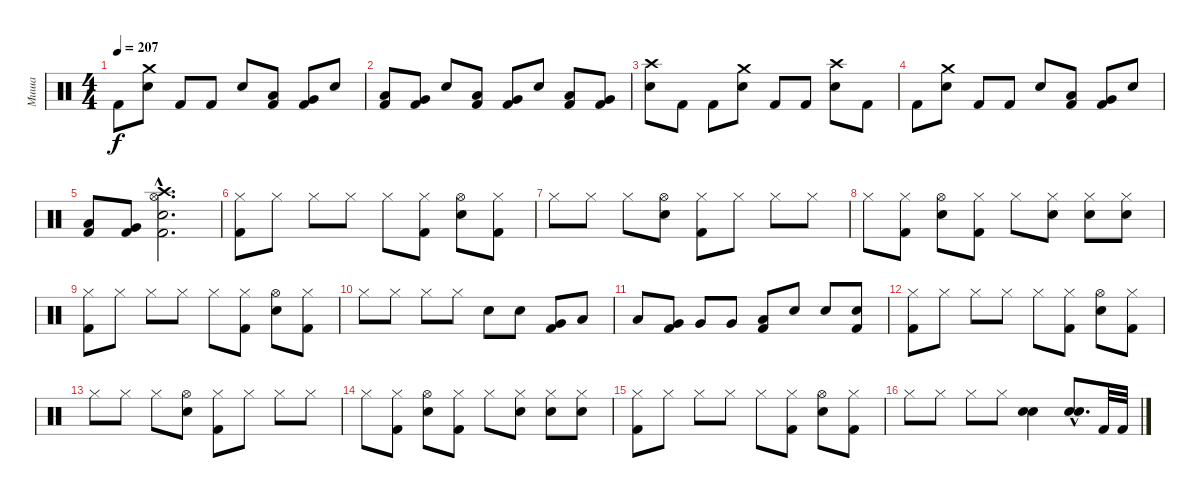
\track ("Миша" "Миша") {instrument percussion}
\staff {score}
\articulation defaults
\ts (4 4)
\tempo 207
\clef neutral
\ks c "Kick (hit) 2".8{dy f}
("Snare (hit) 2" "Crash medium (hit)").8 "Kick (hit) 2".8 "Kick (hit) 2".8 "Snare (hit) 2".8 ("Kick (hit) 2" "Low Tom (hit)").8 ("Kick (hit) 2" "Very Low Tom (hit)").8 "Snare (hit) 2".8 |
("Kick (hit) 2" "Low Tom (hit)").8 ("Kick (hit) 2" "Very Low Tom (hit)").8 "Snare (hit) 2".8 ("Kick (hit) 2" "Low Tom (hit)").8 ("Kick (hit) 2" "Very Low Tom (hit)").8 "Snare (hit) 2".8 ("Kick (hit) 2" "Low Tom (hit)").8 ("Kick (hit) 2" "Very Low Tom (hit)").8 |
("Snare (hit) 2" "Crash high (hit)").8 "Kick (hit) 2".8 "Kick (hit) 2".8 ("Snare (hit) 2" "Crash medium (hit)").8 "Kick (hit) 2".8 "Kick (hit) 2".8 ("Snare (hit) 2" "Crash high (hit)").8 "Kick (hit) 2".8 |
"Kick (hit) 2".8 ("Snare (hit) 2" "Crash medium (hit)").8 "Kick (hit) 2".8 "Kick (hit) 2".8 "Snare (hit) 2".8 ("Kick (hit) 2" "Low Tom (hit)").8 ("Kick (hit) 2" "Very Low Tom (hit)").8 "Snare (hit) 2".8 |
("Kick (hit) 2" "Low Tom (hit)").8 ("Kick (hit) 2" "Very Low Tom (hit)").8 ("Kick (hit) 2"{hac} "Snare (hit) 2"{hac} "Hi-Hat (open)"{hac} "Crash high (hit)"{hac}).2{d} |
("Kick (hit) 2" "Hi-Hat (closed)").8 "Hi-Hat (closed)".8 "Hi-Hat (closed)".8 "Hi-Hat (closed)".8 "Hi-Hat (closed)".8 ("Kick (hit) 2" "Hi-Hat (closed)").8 ("Snare (hit) 2" "Hi-Hat (open)").8 ("Kick (hit) 2" "Hi-Hat (closed)").8 |
"Hi-Hat (closed)".8 "Hi-Hat (closed)".8 "Hi-Hat (closed)".8 ("Snare (hit) 2" "Hi-Hat (open)").8 ("Kick (hit) 2" "Hi-Hat (closed)").8 "Hi-Hat (closed)".8 "Hi-Hat (closed)".8 "Hi-Hat (closed)".8 |
"Hi-Hat (closed)".8 ("Kick (hit) 2" "Hi-Hat (closed)").8 ("Snare (hit) 2" "Hi-Hat (open)").8 ("Kick (hit) 2" "Hi-Hat (closed)").8 "Hi-Hat (closed)".8 ("Snare (hit) 2" "Hi-Hat (closed)").8 ("Snare (hit) 2" "Hi-Hat (closed)").8 ("Snare (hit) 2" "Hi-Hat (closed)").8 |
("Kick (hit) 2" "Hi-Hat (closed)").8 "Hi-Hat (closed)".8 "Hi-Hat (closed)".8 "Hi-Hat (closed)".8 "Hi-Hat (closed)".8 ("Kick (hit) 2" "Hi-Hat (closed)").8 ("Snare (hit) 2" "Hi-Hat (open)").8 ("Kick (hit) 2" "Hi-Hat (closed)").8 |
"Hi-Hat (closed)".8 "Hi-Hat (closed)".8 "Hi-Hat (closed)".8 "Hi-Hat (closed)".8 "Snare (hit) 2".8 "Snare (hit) 2".8 ("Kick (hit) 2" "Very Low Tom (hit)").8 "Low Tom (hit)".8 |
"Low Tom (hit)".8 ("Kick (hit) 2" "Very Low Tom (hit)").8 "Very Low Tom (hit)".8 "Very Low Tom (hit)".8 ("Kick (hit) 2" "Low Floor Tom (hit)").8 "Snare (hit) 2".8 "Snare (hit) 2".8 ("Kick (hit) 2" "Snare (hit) 2").8 |
("Kick (hit) 2" "Hi-Hat (closed)").8 "Hi-Hat (closed)".8 "Hi-Hat (closed)".8 "Hi-Hat (closed)".8 "Hi-Hat (closed)".8 ("Kick (hit) 2" "Hi-Hat (closed)").8 ("Snare (hit) 2" "Hi-Hat (open)").8 ("Kick (hit) 2" "Hi-Hat (closed)").8 |
"Hi-Hat (closed)".8 "Hi-Hat (closed)".8 "Hi-Hat (closed)".8 ("Snare (hit) 2" "Hi-Hat (open)").8 ("Kick (hit) 2" "Hi-Hat (closed)").8 "Hi-Hat (closed)".8 "Hi-Hat (closed)".8 "Hi-Hat (closed)".8 |
"Hi-Hat (closed)".8 ("Kick (hit) 2" "Hi-Hat (closed)").8 ("Snare (hit) 2" "Hi-Hat (open)").8 ("Kick (hit) 2" "Hi-Hat (closed)").8 "Hi-Hat (closed)".8 ("Snare (hit) 2" "Hi-Hat (closed)").8 ("Snare (hit) 2" "Hi-Hat (closed)").8 ("Snare (hit) 2" "Hi-Hat (closed)").8 |
("Kick (hit) 2" "Hi-Hat (closed)").8 "Hi-Hat (closed)".8 "Hi-Hat (closed)".8 "Hi-Hat (closed)".8 "Hi-Hat (closed)".8 ("Kick (hit) 2" "Hi-Hat (closed)").8 ("Snare (hit) 2" "Hi-Hat (open)").8 ("Kick (hit) 2" "Hi-Hat (closed)").8 |
"Hi-Hat (closed)".8 "Hi-Hat (closed)".8 "Hi-Hat (closed)".8 "Hi-Hat (closed)".8 ("Snare (hit) 2" "Snare (hit) 2").4 ("Snare (hit) 2"{hac} "Snare (hit) 2"{hac}).8{d} "Kick (hit) 2".32 "Kick (hit) 2".32
